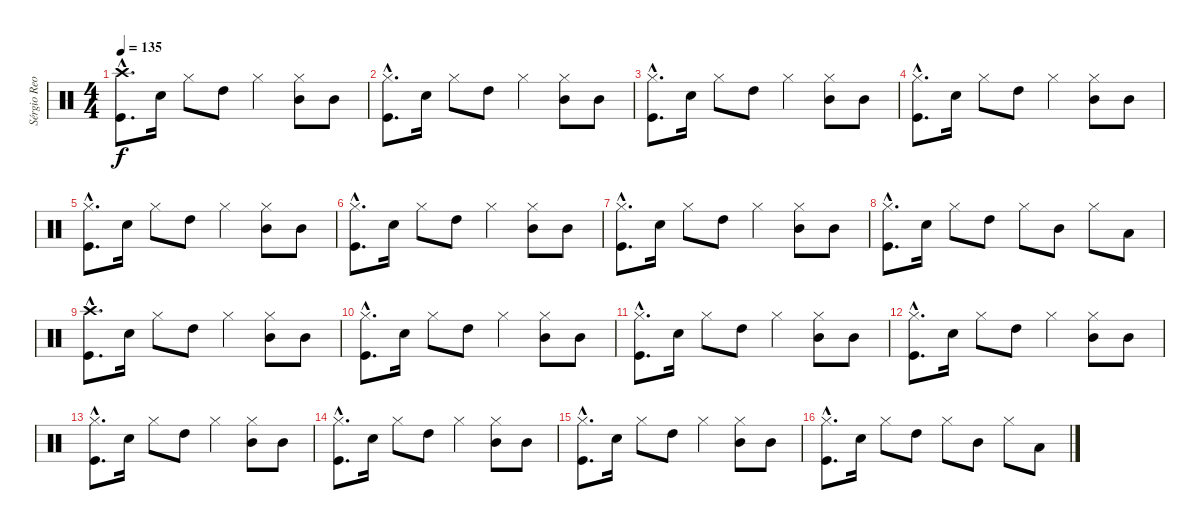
\track ("Sérgio Reoli" "Sérgio Reo") {instrument percussion}
\staff {score}
\articulation defaults
\ts (4 4)
\tempo 135
\clef neutral
\ks c
("Crash high (hit)"{hac} "Kick (hit)"{hac}).8{d dy f} "Electric Snare (hit)".16 "Hi-Hat (closed)".8 "High Tom (hit)".8 "Hi-Hat (closed)".4 ("Hi-Hat (closed)" "Mid Tom (hit)").8 "Mid Tom (hit)".8 |
("Hi-Hat (closed)"{hac} "Kick (hit)"{hac}).8{d} "Electric Snare (hit)".16 "Hi-Hat (closed)".8 "High Tom (hit)".8 "Hi-Hat (closed)".4 ("Hi-Hat (closed)" "Mid Tom (hit)").8 "Mid Tom (hit)".8 |
("Hi-Hat (closed)"{hac} "Kick (hit)"{hac}).8{d} "Electric Snare (hit)".16 "Hi-Hat (closed)".8 "High Tom (hit)".8 "Hi-Hat (closed)".4 ("Hi-Hat (closed)" "Mid Tom (hit)").8 "Mid Tom (hit)".8 |
("Hi-Hat (closed)"{hac} "Kick (hit)"{hac}).8{d} "Electric Snare (hit)".16 "Hi-Hat (closed)".8 "High Tom (hit)".8 "Hi-Hat (closed)".4 ("Hi-Hat (closed)" "Mid Tom (hit)").8 "Mid Tom (hit)".8 |
("Hi-Hat (closed)"{hac} "Kick (hit)"{hac}).8{d} "Electric Snare (hit)".16 "Hi-Hat (closed)".8 "High Tom (hit)".8 "Hi-Hat (closed)".4 ("Hi-Hat (closed)" "Mid Tom (hit)").8 "Mid Tom (hit)".8 |
("Hi-Hat (closed)"{hac} "Kick (hit)"{hac}).8{d} "Electric Snare (hit)".16 "Hi-Hat (closed)".8 "High Tom (hit)".8 "Hi-Hat (closed)".4 ("Hi-Hat (closed)" "Mid Tom (hit)").8 "Mid Tom (hit)".8 |
("Hi-Hat (closed)"{hac} "Kick (hit)"{hac}).8{d} "Electric Snare (hit)".16 "Hi-Hat (closed)".8 "High Tom (hit)".8 "Hi-Hat (closed)".4 ("Hi-Hat (closed)" "Mid Tom (hit)").8 "Mid Tom (hit)".8 |
("Hi-Hat (closed)"{hac} "Kick (hit)"{hac}).8{d} "Electric Snare (hit)".16 "Hi-Hat (closed)".8 "High Tom (hit)".8 "Hi-Hat (closed)".8 "Mid Tom (hit)".8 "Hi-Hat (closed)".8 "Low Tom (hit)".8 |
("Crash high (hit)"{hac} "Kick (hit)"{hac}).8{d} "Electric Snare (hit)".16 "Hi-Hat (closed)".8 "High Tom (hit)".8 "Hi-Hat (closed)".4 ("Hi-Hat (closed)" "Mid Tom (hit)").8 "Mid Tom (hit)".8 |
("Hi-Hat (closed)"{hac} "Kick (hit)"{hac}).8{d} "Electric Snare (hit)".16 "Hi-Hat (closed)".8 "High Tom (hit)".8 "Hi-Hat (closed)".4 ("Hi-Hat (closed)" "Mid Tom (hit)").8 "Mid Tom (hit)".8 |
("Hi-Hat (closed)"{hac} "Kick (hit)"{hac}).8{d} "Electric Snare (hit)".16 "Hi-Hat (closed)".8 "High Tom (hit)".8 "Hi-Hat (closed)".4 ("Hi-Hat (closed)" "Mid Tom (hit)").8 "Mid Tom (hit)".8 |
("Hi-Hat (closed)"{hac} "Kick (hit)"{hac}).8{d} "Electric Snare (hit)".16 "Hi-Hat (closed)".8 "High Tom (hit)".8 "Hi-Hat (closed)".4 ("Hi-Hat (closed)" "Mid Tom (hit)").8 "Mid Tom (hit)".8 |
("Hi-Hat (closed)"{hac} "Kick (hit)"{hac}).8{d} "Electric Snare (hit)".16 "Hi-Hat (closed)".8 "High Tom (hit)".8 "Hi-Hat (closed)".4 ("Hi-Hat (closed)" "Mid Tom (hit)").8 "Mid Tom (hit)".8 |
("Hi-Hat (closed)"{hac} "Kick (hit)"{hac}).8{d} "Electric Snare (hit)".16 "Hi-Hat (closed)".8 "High Tom (hit)".8 "Hi-Hat (closed)".4 ("Hi-Hat (closed)" "Mid Tom (hit)").8 "Mid Tom (hit)".8 |
("Hi-Hat (closed)"{hac} "Kick (hit)"{hac}).8{d} "Electric Snare (hit)".16 "Hi-Hat (closed)".8 "High Tom (hit)".8 "Hi-Hat (closed)".4 ("Hi-Hat (closed)" "Mid Tom (hit)").8 "Mid Tom (hit)".8 |
("Hi-Hat (closed)"{hac} "Kick (hit)"{hac}).8{d} "Electric Snare (hit)".16 "Hi-Hat (closed)".8 "High Tom (hit)".8 "Hi-Hat (closed)".8 "Mid Tom (hit)".8 "Hi-Hat (closed)".8 "Low Tom (hit)".8
